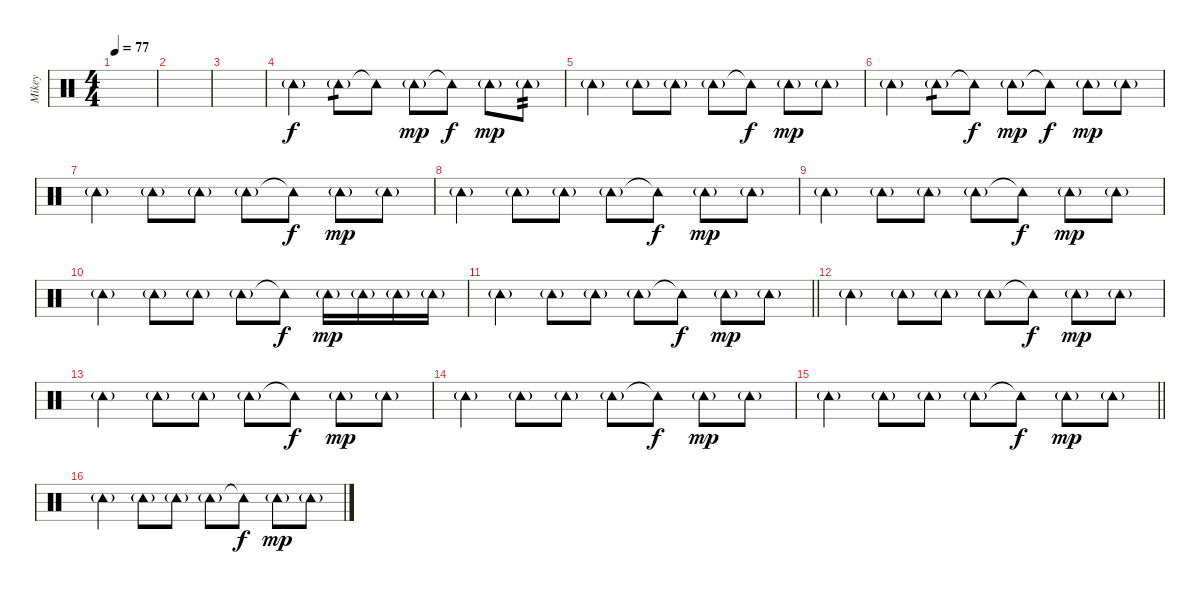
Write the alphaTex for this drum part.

\track ("Mikey" "Mikey") {instrument percussion}
\staff {score}
\articulation defaults
\ts (4 4)
\tempo 77
\clef neutral
\ks c
|
|
|
"Tambourine (hit)"{g}.4 "Tambourine (hit)"{g}.8{tp 1} "Tambourine (hit)"{t}.8{dy f} "Tambourine (hit)"{g}.8{dy mp} "Tambourine (hit)"{t}.8{dy f} "Tambourine (hit)"{g}.8{dy mp} "Tambourine (hit)"{g}.8{tp 2} |
"Tambourine (hit)"{g}.4 "Tambourine (hit)"{g}.8 "Tambourine (hit)"{g}.8 "Tambourine (hit)"{g}.8 "Tambourine (hit)"{t}.8{dy f} "Tambourine (hit)"{g}.8{dy mp} "Tambourine (hit)"{g}.8 |
"Tambourine (hit)"{g}.4 "Tambourine (hit)"{g}.8{tp 1} "Tambourine (hit)"{t}.8{dy f} "Tambourine (hit)"{g}.8{dy mp} "Tambourine (hit)"{t}.8{dy f} "Tambourine (hit)"{g}.8{dy mp} "Tambourine (hit)"{g}.8 |
"Tambourine (hit)"{g}.4 "Tambourine (hit)"{g}.8 "Tambourine (hit)"{g}.8 "Tambourine (hit)"{g}.8 "Tambourine (hit)"{t}.8{dy f} "Tambourine (hit)"{g}.8{dy mp} "Tambourine (hit)"{g}.8 |
"Tambourine (hit)"{g}.4 "Tambourine (hit)"{g}.8 "Tambourine (hit)"{g}.8 "Tambourine (hit)"{g}.8 "Tambourine (hit)"{t}.8{dy f} "Tambourine (hit)"{g}.8{dy mp} "Tambourine (hit)"{g}.8 |
"Tambourine (hit)"{g}.4 "Tambourine (hit)"{g}.8 "Tambourine (hit)"{g}.8 "Tambourine (hit)"{g}.8 "Tambourine (hit)"{t}.8{dy f} "Tambourine (hit)"{g}.8{dy mp} "Tambourine (hit)"{g}.8 |
"Tambourine (hit)"{g}.4 "Tambourine (hit)"{g}.8 "Tambourine (hit)"{g}.8 "Tambourine (hit)"{g}.8 "Tambourine (hit)"{t}.8{dy f} "Tambourine (hit)"{g}.16{dy mp} "Tambourine (hit)"{g}.16 "Tambourine (hit)"{g}.16 "Tambourine (hit)"{g}.16 |
\barLineRight lightlight "Tambourine (hit)"{g}.4 "Tambourine (hit)"{g}.8 "Tambourine (hit)"{g}.8 "Tambourine (hit)"{g}.8 "Tambourine (hit)"{t}.8{dy f} "Tambourine (hit)"{g}.8{dy mp} "Tambourine (hit)"{g}.8
|
"Tambourine (hit)"{g}.4 "Tambourine (hit)"{g}.8 "Tambourine (hit)"{g}.8 "Tambourine (hit)"{g}.8 "Tambourine (hit)"{t}.8{dy f} "Tambourine (hit)"{g}.8{dy mp} "Tambourine (hit)"{g}.8 |
"Tambourine (hit)"{g}.4 "Tambourine (hit)"{g}.8 "Tambourine (hit)"{g}.8 "Tambourine (hit)"{g}.8 "Tambourine (hit)"{t}.8{dy f} "Tambourine (hit)"{g}.8{dy mp} "Tambourine (hit)"{g}.8 |
"Tambourine (hit)"{g}.4 "Tambourine (hit)"{g}.8 "Tambourine (hit)"{g}.8 "Tambourine (hit)"{g}.8 "Tambourine (hit)"{t}.8{dy f} "Tambourine (hit)"{g}.8{dy mp} "Tambourine (hit)"{g}.8 |
\barLineRight lightlight "Tambourine (hit)"{g}.4 "Tambourine (hit)"{g}.8 "Tambourine (hit)"{g}.8 "Tambourine (hit)"{g}.8 "Tambourine (hit)"{t}.8{dy f} "Tambourine (hit)"{g}.8{dy mp} "Tambourine (hit)"{g}.8
|
"Tambourine (hit)"{g}.4 "Tambourine (hit)"{g}.8 "Tambourine (hit)"{g}.8 "Tambourine (hit)"{g}.8 "Tambourine (hit)"{t}.8{dy f} "Tambourine (hit)"{g}.8{dy mp} "Tambourine (hit)"{g}.8
